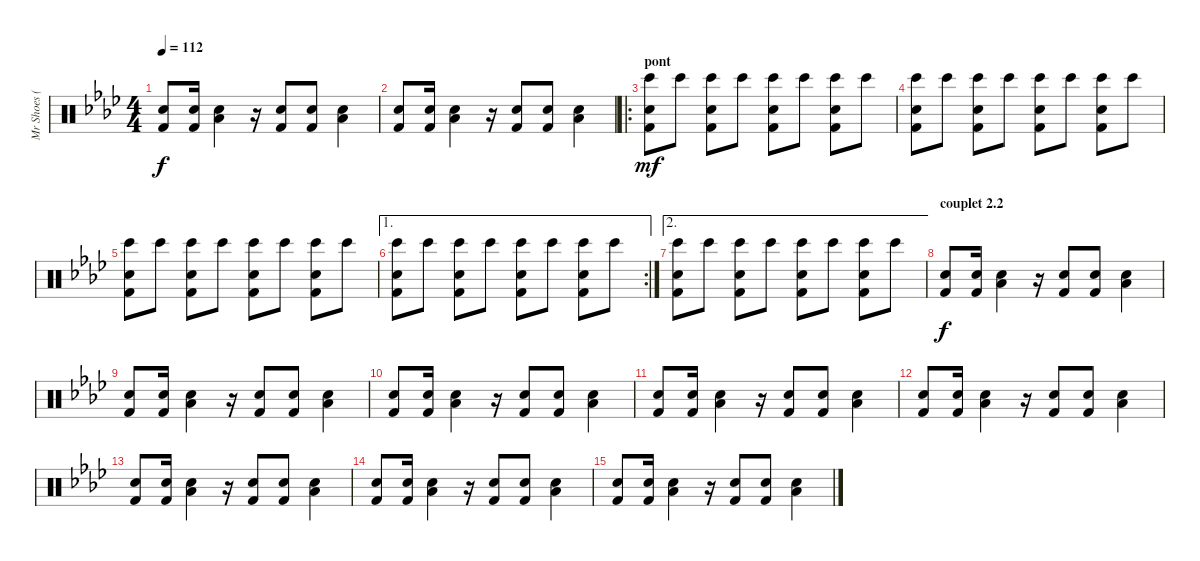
\track ("Mr Shoes (batterie)" "Mr Shoes (") {instrument percussion}
\staff {score}
\articulation defaults
\ts (4 4)
\tempo 112
\clef neutral
\ks ab
("Snare (hit) 2" "Kick (hit) 2").8{dy f} ("Snare (hit) 2" "Kick (hit) 2").16 ("Snare (hit) 2" "Low Tom (hit)").4 r.16 ("Snare (hit) 2" "Kick (hit) 2").8 ("Snare (hit) 2" "Kick (hit) 2").8 ("Snare (hit) 2" "Low Tom (hit)").4 |
("Snare (hit) 2" "Kick (hit) 2").8 ("Snare (hit) 2" "Kick (hit) 2").16 ("Snare (hit) 2" "Low Tom (hit)").4 r.16 ("Snare (hit) 2" "Kick (hit) 2").8 ("Snare (hit) 2" "Kick (hit) 2").8 ("Snare (hit) 2" "Low Tom (hit)").4 |
\ro
\section ("" "pont")
("Snare (hit) 2" "Kick (hit) 2" "Bongo High (hit)").8{dy mf volume 11} "Bongo High (hit)".8 ("Snare (hit) 2" "Kick (hit) 2" "Bongo High (hit)").8 "Bongo High (hit)".8 ("Snare (hit) 2" "Kick (hit) 2" "Bongo High (hit)").8 "Bongo High (hit)".8 ("Snare (hit) 2" "Kick (hit) 2" "Bongo High (hit)").8 "Bongo High (hit)".8 |
("Snare (hit) 2" "Kick (hit) 2" "Bongo High (hit)").8 "Bongo High (hit)".8 ("Snare (hit) 2" "Kick (hit) 2" "Bongo High (hit)").8 "Bongo High (hit)".8 ("Snare (hit) 2" "Kick (hit) 2" "Bongo High (hit)").8 "Bongo High (hit)".8 ("Snare (hit) 2" "Kick (hit) 2" "Bongo High (hit)").8 "Bongo High (hit)".8 |
("Snare (hit) 2" "Kick (hit) 2" "Bongo High (hit)").8 "Bongo High (hit)".8 ("Snare (hit) 2" "Kick (hit) 2" "Bongo High (hit)").8 "Bongo High (hit)".8 ("Snare (hit) 2" "Kick (hit) 2" "Bongo High (hit)").8 "Bongo High (hit)".8 ("Snare (hit) 2" "Kick (hit) 2" "Bongo High (hit)").8 "Bongo High (hit)".8 |
\ae 1
\rc 2
("Snare (hit) 2" "Kick (hit) 2" "Bongo High (hit)").8 "Bongo High (hit)".8 ("Snare (hit) 2" "Kick (hit) 2" "Bongo High (hit)").8 "Bongo High (hit)".8 ("Snare (hit) 2" "Kick (hit) 2" "Bongo High (hit)").8 "Bongo High (hit)".8 ("Snare (hit) 2" "Kick (hit) 2" "Bongo High (hit)").8 "Bongo High (hit)".8 |
\ae 2
("Snare (hit) 2" "Kick (hit) 2" "Bongo High (hit)").8 "Bongo High (hit)".8 ("Snare (hit) 2" "Kick (hit) 2" "Bongo High (hit)").8 "Bongo High (hit)".8 ("Snare (hit) 2" "Kick (hit) 2" "Bongo High (hit)").8 "Bongo High (hit)".8 ("Snare (hit) 2" "Kick (hit) 2" "Bongo High (hit)").8 "Bongo High (hit)".8 |
\section ("" "couplet 2.2")
("Snare (hit) 2" "Kick (hit) 2").8{dy f volume 14} ("Snare (hit) 2" "Kick (hit) 2").16 ("Snare (hit) 2" "Low Tom (hit)").4 r.16 ("Snare (hit) 2" "Kick (hit) 2").8 ("Snare (hit) 2" "Kick (hit) 2").8 ("Snare (hit) 2" "Low Tom (hit)").4 |
("Snare (hit) 2" "Kick (hit) 2").8 ("Snare (hit) 2" "Kick (hit) 2").16 ("Snare (hit) 2" "Low Tom (hit)").4 r.16 ("Snare (hit) 2" "Kick (hit) 2").8 ("Snare (hit) 2" "Kick (hit) 2").8 ("Snare (hit) 2" "Low Tom (hit)").4 |
("Snare (hit) 2" "Kick (hit) 2").8 ("Snare (hit) 2" "Kick (hit) 2").16 ("Snare (hit) 2" "Low Tom (hit)").4 r.16 ("Snare (hit) 2" "Kick (hit) 2").8 ("Snare (hit) 2" "Kick (hit) 2").8 ("Snare (hit) 2" "Low Tom (hit)").4 |
("Snare (hit) 2" "Kick (hit) 2").8 ("Snare (hit) 2" "Kick (hit) 2").16 ("Snare (hit) 2" "Low Tom (hit)").4 r.16 ("Snare (hit) 2" "Kick (hit) 2").8 ("Snare (hit) 2" "Kick (hit) 2").8 ("Snare (hit) 2" "Low Tom (hit)").4 |
("Snare (hit) 2" "Kick (hit) 2").8 ("Snare (hit) 2" "Kick (hit) 2").16 ("Snare (hit) 2" "Low Tom (hit)").4 r.16 ("Snare (hit) 2" "Kick (hit) 2").8 ("Snare (hit) 2" "Kick (hit) 2").8 ("Snare (hit) 2" "Low Tom (hit)").4 |
("Snare (hit) 2" "Kick (hit) 2").8 ("Snare (hit) 2" "Kick (hit) 2").16 ("Snare (hit) 2" "Low Tom (hit)").4 r.16 ("Snare (hit) 2" "Kick (hit) 2").8 ("Snare (hit) 2" "Kick (hit) 2").8 ("Snare (hit) 2" "Low Tom (hit)").4 |
("Snare (hit) 2" "Kick (hit) 2").8 ("Snare (hit) 2" "Kick (hit) 2").16 ("Snare (hit) 2" "Low Tom (hit)").4 r.16 ("Snare (hit) 2" "Kick (hit) 2").8 ("Snare (hit) 2" "Kick (hit) 2").8 ("Snare (hit) 2" "Low Tom (hit)").4 |
("Snare (hit) 2" "Kick (hit) 2").8 ("Snare (hit) 2" "Kick (hit) 2").16 ("Snare (hit) 2" "Low Tom (hit)").4 r.16 ("Snare (hit) 2" "Kick (hit) 2").8 ("Snare (hit) 2" "Kick (hit) 2").8 ("Snare (hit) 2" "Low Tom (hit)").4
